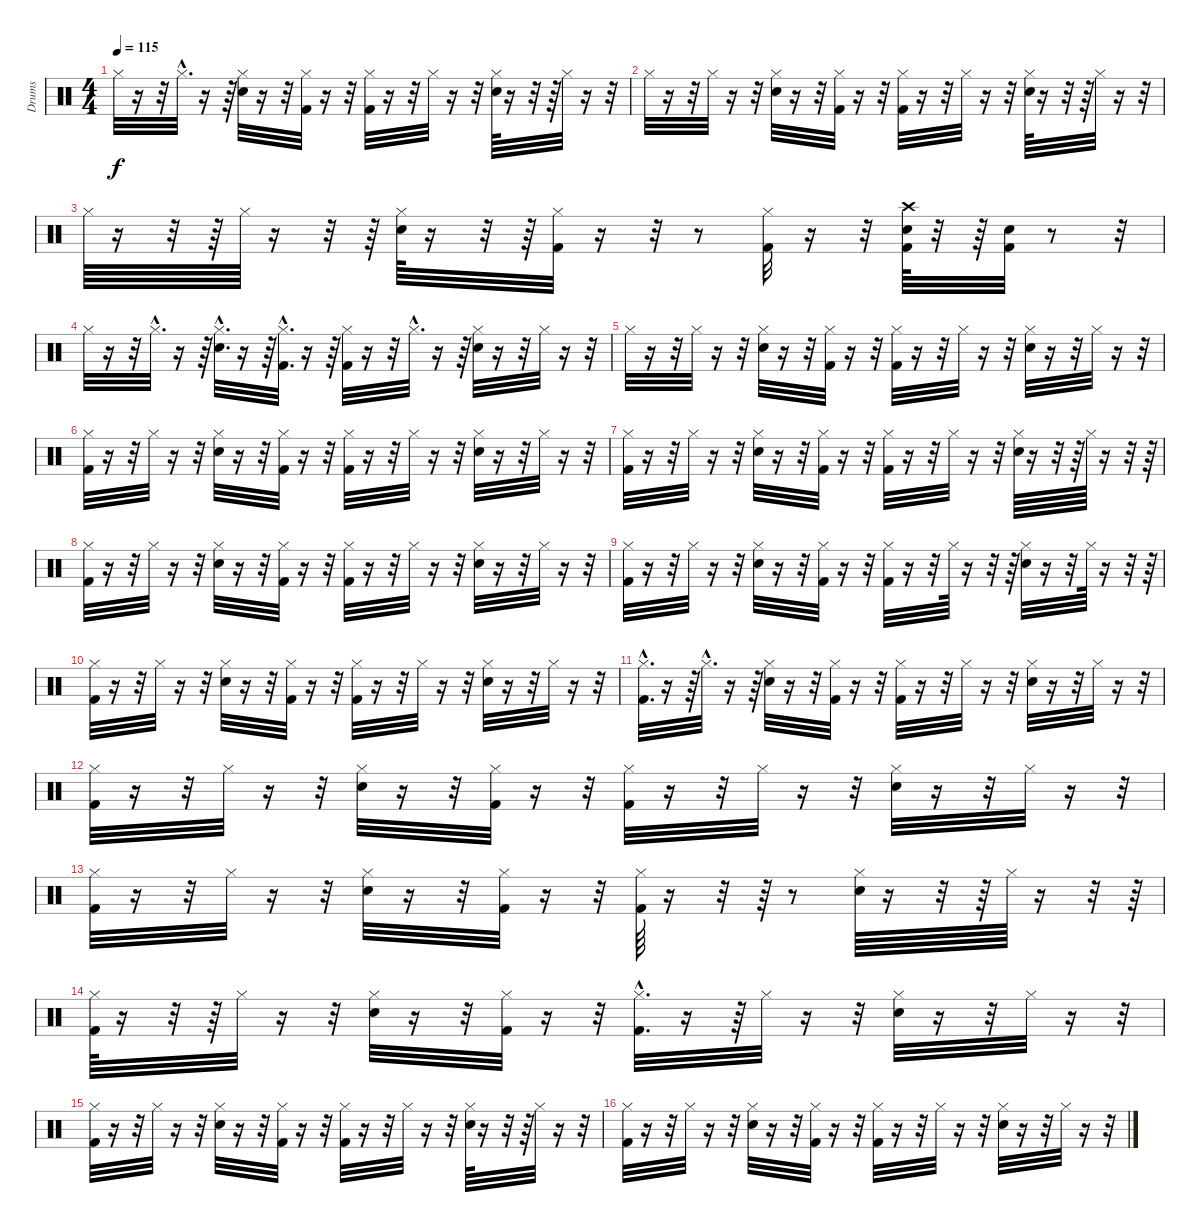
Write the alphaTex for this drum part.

\track ("Drums               " "Drums     ") {instrument percussion}
\staff {score}
\articulation defaults
\ts (4 4)
\tempo 115
\clef neutral
\ks c "Hi-Hat (closed)".32{dy f}
r.16 r.32 "Hi-Hat (closed)"{hac}.32{d} r.16 r.64 ("Hi-Hat (closed)" "Snare (hit) 2").32 r.16 r.32 ("Hi-Hat (closed)" "Kick (hit) 2").32 r.16 r.32 ("Hi-Hat (closed)" "Kick (hit) 2").32 r.16 r.32 "Hi-Hat (closed)".32 r.16 r.32 ("Hi-Hat (closed)" "Snare (hit) 2").64 r.16 r.32 r.64 "Hi-Hat (closed)".32 r.16 r.32 |
"Hi-Hat (closed)".32 r.16 r.32 "Hi-Hat (closed)".32 r.16 r.32 ("Hi-Hat (closed)" "Snare (hit) 2").32 r.16 r.32 ("Hi-Hat (closed)" "Kick (hit) 2").32 r.16 r.32 ("Hi-Hat (closed)" "Kick (hit) 2").32 r.16 r.32 "Hi-Hat (closed)".32 r.16 r.32 ("Hi-Hat (closed)" "Snare (hit) 2").64 r.16 r.32 r.64 "Hi-Hat (closed)".32 r.16 r.32 |
"Hi-Hat (closed)".64 r.16 r.32 r.64 "Hi-Hat (closed)".64 r.16 r.32 r.64 ("Hi-Hat (closed)" "Snare (hit) 2").64 r.16 r.32 r.64 ("Hi-Hat (closed)" "Kick (hit) 2").32 r.16 r.32 r.8 ("Hi-Hat (closed)" "Kick (hit) 2").32 r.16 r.32 ("Crash high (hit)" "Kick (hit) 2" "Snare (hit) 2").64 r.32 r.64 ("Kick (hit) 2" "Snare (hit) 2").32 r.8 r.32 |
"Hi-Hat (closed)".32 r.16 r.32 "Hi-Hat (closed)"{hac}.32{d} r.16 r.64 ("Hi-Hat (closed)"{hac} "Snare (hit) 2"{hac}).32{d} r.16 r.64 ("Hi-Hat (closed)"{hac} "Kick (hit) 2"{hac}).32{d} r.16 r.64 ("Hi-Hat (closed)" "Kick (hit) 2").32 r.16 r.32 "Hi-Hat (closed)"{hac}.32{d} r.16 r.64 ("Hi-Hat (closed)" "Snare (hit) 2").32 r.16 r.32 "Hi-Hat (closed)".32 r.16 r.32 |
"Hi-Hat (closed)".32 r.16 r.32 "Hi-Hat (closed)".32 r.16 r.32 ("Hi-Hat (closed)" "Snare (hit) 2").32 r.16 r.32 ("Hi-Hat (closed)" "Kick (hit) 2").32 r.16 r.32 ("Hi-Hat (closed)" "Kick (hit) 2").32 r.16 r.32 "Hi-Hat (closed)".32 r.16 r.32 ("Hi-Hat (closed)" "Snare (hit) 2").32 r.16 r.32 "Hi-Hat (closed)".32 r.16 r.32 |
("Hi-Hat (closed)" "Kick (hit) 2").32 r.16 r.32 "Hi-Hat (closed)".32 r.16 r.32 ("Hi-Hat (closed)" "Snare (hit) 2").32 r.16 r.32 ("Hi-Hat (closed)" "Kick (hit) 2").32 r.16 r.32 ("Hi-Hat (closed)" "Kick (hit) 2").32 r.16 r.32 "Hi-Hat (closed)".32 r.16 r.32 ("Hi-Hat (closed)" "Snare (hit) 2").32 r.16 r.32 "Hi-Hat (closed)".32 r.16 r.32 |
("Hi-Hat (closed)" "Kick (hit) 2").32 r.16 r.32 "Hi-Hat (closed)".32 r.16 r.32 ("Hi-Hat (closed)" "Snare (hit) 2").32 r.16 r.32 ("Hi-Hat (closed)" "Kick (hit) 2").32 r.16 r.32 ("Hi-Hat (closed)" "Kick (hit) 2").32 r.16 r.32 "Hi-Hat (closed)".32 r.16 r.32 ("Hi-Hat (closed)" "Snare (hit) 2").64 r.16 r.32 r.64 "Hi-Hat (closed)".64 r.16 r.32 r.64 |
("Hi-Hat (closed)" "Kick (hit) 2").32 r.16 r.32 "Hi-Hat (closed)".32 r.16 r.32 ("Hi-Hat (closed)" "Snare (hit) 2").32 r.16 r.32 ("Hi-Hat (closed)" "Kick (hit) 2").32 r.16 r.32 ("Hi-Hat (closed)" "Kick (hit) 2").32 r.16 r.32 "Hi-Hat (closed)".32 r.16 r.32 ("Hi-Hat (closed)" "Snare (hit) 2").32 r.16 r.32 "Hi-Hat (closed)".32 r.16 r.32 |
("Hi-Hat (closed)" "Kick (hit) 2").32 r.16 r.32 "Hi-Hat (closed)".32 r.16 r.32 ("Hi-Hat (closed)" "Snare (hit) 2").32 r.16 r.32 ("Hi-Hat (closed)" "Kick (hit) 2").32 r.16 r.32 ("Hi-Hat (closed)" "Kick (hit) 2").32 r.16 r.32 "Hi-Hat (closed)".64 r.16 r.32 r.64 ("Hi-Hat (closed)" "Snare (hit) 2").32 r.16 r.32 "Hi-Hat (closed)".64 r.16 r.32 r.64 |
("Hi-Hat (closed)" "Kick (hit) 2").32 r.16 r.32 "Hi-Hat (closed)".32 r.16 r.32 ("Hi-Hat (closed)" "Snare (hit) 2").32 r.16 r.32 ("Hi-Hat (closed)" "Kick (hit) 2").32 r.16 r.32 ("Hi-Hat (closed)" "Kick (hit) 2").32 r.16 r.32 "Hi-Hat (closed)".32 r.16 r.32 ("Hi-Hat (closed)" "Snare (hit) 2").32 r.16 r.32 "Hi-Hat (closed)".32 r.16 r.32 |
("Hi-Hat (closed)"{hac} "Kick (hit) 2"{hac}).32{d} r.16 r.64 "Hi-Hat (closed)"{hac}.32{d} r.16 r.64 ("Hi-Hat (closed)" "Snare (hit) 2").32 r.16 r.32 ("Hi-Hat (closed)" "Kick (hit) 2").32 r.16 r.32 ("Hi-Hat (closed)" "Kick (hit) 2").32 r.16 r.32 "Hi-Hat (closed)".32 r.16 r.32 ("Hi-Hat (closed)" "Snare (hit) 2").32 r.16 r.32 "Hi-Hat (closed)".32 r.16 r.32 |
("Hi-Hat (closed)" "Kick (hit) 2").32 r.16 r.32 "Hi-Hat (closed)".32 r.16 r.32 ("Hi-Hat (closed)" "Snare (hit) 2").32 r.16 r.32 ("Hi-Hat (closed)" "Kick (hit) 2").32 r.16 r.32 ("Hi-Hat (closed)" "Kick (hit) 2").32 r.16 r.32 "Hi-Hat (closed)".32 r.16 r.32 ("Hi-Hat (closed)" "Snare (hit) 2").32 r.16 r.32 "Hi-Hat (closed)".32 r.16 r.32 |
("Hi-Hat (closed)" "Kick (hit) 2").32 r.16 r.32 "Hi-Hat (closed)".32 r.16 r.32 ("Hi-Hat (closed)" "Snare (hit) 2").32 r.16 r.32 ("Hi-Hat (closed)" "Kick (hit) 2").32 r.16 r.32 ("Hi-Hat (closed)" "Kick (hit) 2").64 r.16 r.32 r.64 r.8 ("Hi-Hat (closed)" "Snare (hit) 2").64 r.16 r.32 r.64 "Hi-Hat (closed)".64 r.16 r.32 r.64 |
("Hi-Hat (closed)" "Kick (hit) 2").64 r.16 r.32 r.64 "Hi-Hat (closed)".32 r.16 r.32 ("Hi-Hat (closed)" "Snare (hit) 2").32 r.16 r.32 ("Hi-Hat (closed)" "Kick (hit) 2").32 r.16 r.32 ("Hi-Hat (closed)"{hac} "Kick (hit) 2"{hac}).32{d} r.16 r.64 "Hi-Hat (closed)".32 r.16 r.32 ("Hi-Hat (closed)" "Snare (hit) 2").32 r.16 r.32 "Hi-Hat (closed)".32 r.16 r.32 |
("Hi-Hat (closed)" "Kick (hit) 2").32 r.16 r.32 "Hi-Hat (closed)".32 r.16 r.32 ("Hi-Hat (closed)" "Snare (hit) 2").32 r.16 r.32 ("Hi-Hat (closed)" "Kick (hit) 2").32 r.16 r.32 ("Hi-Hat (closed)" "Kick (hit) 2").32 r.16 r.32 "Hi-Hat (closed)".32 r.16 r.32 ("Hi-Hat (closed)" "Snare (hit) 2").64 r.16 r.32 r.64 "Hi-Hat (closed)".32 r.16 r.32 |
("Hi-Hat (closed)" "Kick (hit) 2").32 r.16 r.32 "Hi-Hat (closed)".32 r.16 r.32 ("Hi-Hat (closed)" "Snare (hit) 2").32 r.16 r.32 ("Hi-Hat (closed)" "Kick (hit) 2").32 r.16 r.32 ("Hi-Hat (closed)" "Kick (hit) 2").32 r.16 r.32 "Hi-Hat (closed)".32 r.16 r.32 ("Hi-Hat (closed)" "Snare (hit) 2").32 r.16 r.32 "Hi-Hat (closed)".32 r.16 r.32
